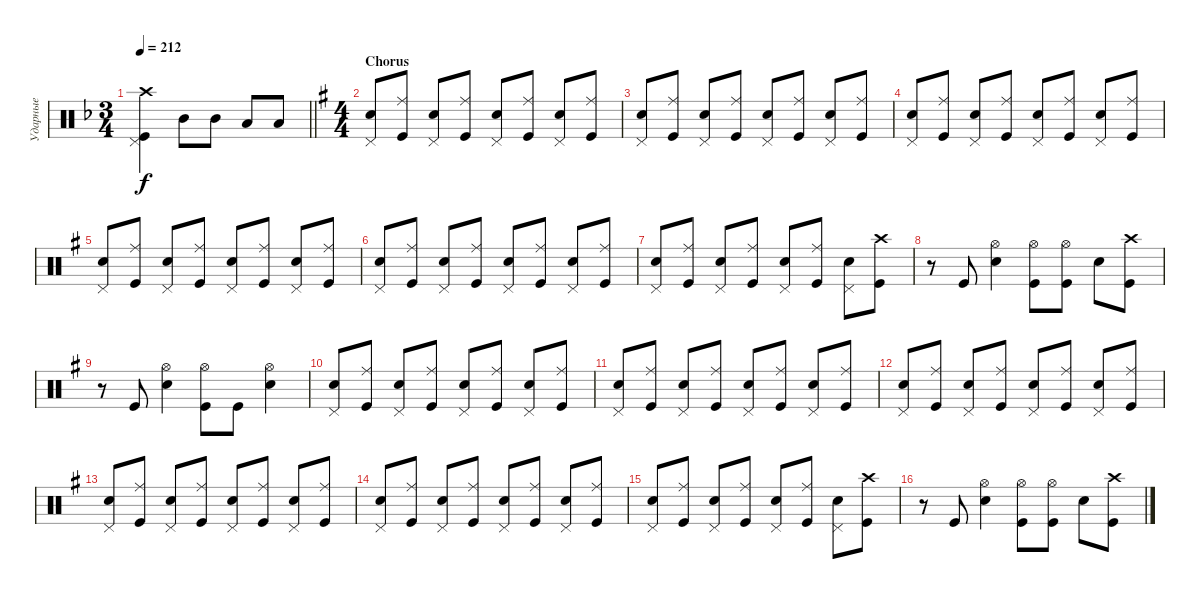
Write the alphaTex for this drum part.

\track ("Ударные" "Ударные") {instrument percussion}
\staff {score}
\articulation defaults
\ts (3 4)
\tempo 212
\clef neutral
\barLineRight lightlight
\ks dminor
("Kick (hit)" "Pedal Hi-Hat (hit)" "Crash high (hit)").4{dy f} "Mid Tom (hit)".8 "Mid Tom (hit)".8 "Low Tom (hit)".8 "Low Tom (hit)".8 |
\ts (4 4)
\section ("" "Chorus")
\ks eminor
("Snare (hit) 2" "Pedal Hi-Hat (hit)").8 ("Kick (hit)" "Ride (middle)").8 ("Snare (hit) 2" "Pedal Hi-Hat (hit)").8 ("Kick (hit)" "Ride (middle)").8 ("Snare (hit) 2" "Pedal Hi-Hat (hit)").8 ("Kick (hit)" "Ride (middle)").8 ("Snare (hit) 2" "Pedal Hi-Hat (hit)").8 ("Kick (hit)" "Ride (middle)").8 |
("Snare (hit) 2" "Pedal Hi-Hat (hit)").8 ("Kick (hit)" "Ride (middle)").8 ("Snare (hit) 2" "Pedal Hi-Hat (hit)").8 ("Kick (hit)" "Ride (middle)").8 ("Snare (hit) 2" "Pedal Hi-Hat (hit)").8 ("Kick (hit)" "Ride (middle)").8 ("Snare (hit) 2" "Pedal Hi-Hat (hit)").8 ("Kick (hit)" "Ride (middle)").8 |
("Snare (hit) 2" "Pedal Hi-Hat (hit)").8 ("Kick (hit)" "Ride (middle)").8 ("Snare (hit) 2" "Pedal Hi-Hat (hit)").8 ("Kick (hit)" "Ride (middle)").8 ("Snare (hit) 2" "Pedal Hi-Hat (hit)").8 ("Kick (hit)" "Ride (middle)").8 ("Snare (hit) 2" "Pedal Hi-Hat (hit)").8 ("Kick (hit)" "Ride (middle)").8 |
("Snare (hit) 2" "Pedal Hi-Hat (hit)").8 ("Kick (hit)" "Ride (middle)").8 ("Snare (hit) 2" "Pedal Hi-Hat (hit)").8 ("Kick (hit)" "Ride (middle)").8 ("Snare (hit) 2" "Pedal Hi-Hat (hit)").8 ("Kick (hit)" "Ride (middle)").8 ("Snare (hit) 2" "Pedal Hi-Hat (hit)").8 ("Kick (hit)" "Ride (middle)").8 |
("Snare (hit) 2" "Pedal Hi-Hat (hit)").8 ("Kick (hit)" "Ride (middle)").8 ("Snare (hit) 2" "Pedal Hi-Hat (hit)").8 ("Kick (hit)" "Ride (middle)").8 ("Snare (hit) 2" "Pedal Hi-Hat (hit)").8 ("Kick (hit)" "Ride (middle)").8 ("Snare (hit) 2" "Pedal Hi-Hat (hit)").8 ("Kick (hit)" "Ride (middle)").8 |
("Snare (hit) 2" "Pedal Hi-Hat (hit)").8 ("Kick (hit)" "Ride (middle)").8 ("Snare (hit) 2" "Pedal Hi-Hat (hit)").8 ("Kick (hit)" "Ride (middle)").8 ("Snare (hit) 2" "Pedal Hi-Hat (hit)").8 ("Kick (hit)" "Ride (middle)").8 ("Snare (hit) 2" "Pedal Hi-Hat (hit)").8 ("Kick (hit)" "Crash high (hit)").8 |
r.8 "Kick (hit)".8 ("Snare (hit) 2" "Hi-Hat (open)").4 ("Hi-Hat (open)" "Kick (hit)").8 ("Hi-Hat (open)" "Kick (hit)").8 "Snare (hit) 2".8 ("Kick (hit)" "Crash high (hit)").8 |
r.8 "Kick (hit)".8 ("Hi-Hat (open)" "Snare (hit) 2").4 ("Kick (hit)" "Hi-Hat (open)").8 "Kick (hit)".8 ("Snare (hit) 2" "Hi-Hat (open)").4 |
("Snare (hit) 2" "Pedal Hi-Hat (hit)").8 ("Kick (hit)" "Ride (middle)").8 ("Snare (hit) 2" "Pedal Hi-Hat (hit)").8 ("Kick (hit)" "Ride (middle)").8 ("Snare (hit) 2" "Pedal Hi-Hat (hit)").8 ("Kick (hit)" "Ride (middle)").8 ("Snare (hit) 2" "Pedal Hi-Hat (hit)").8 ("Kick (hit)" "Ride (middle)").8 |
("Snare (hit) 2" "Pedal Hi-Hat (hit)").8 ("Kick (hit)" "Ride (middle)").8 ("Snare (hit) 2" "Pedal Hi-Hat (hit)").8 ("Kick (hit)" "Ride (middle)").8 ("Snare (hit) 2" "Pedal Hi-Hat (hit)").8 ("Kick (hit)" "Ride (middle)").8 ("Snare (hit) 2" "Pedal Hi-Hat (hit)").8 ("Kick (hit)" "Ride (middle)").8 |
("Snare (hit) 2" "Pedal Hi-Hat (hit)").8 ("Kick (hit)" "Ride (middle)").8 ("Snare (hit) 2" "Pedal Hi-Hat (hit)").8 ("Kick (hit)" "Ride (middle)").8 ("Snare (hit) 2" "Pedal Hi-Hat (hit)").8 ("Kick (hit)" "Ride (middle)").8 ("Snare (hit) 2" "Pedal Hi-Hat (hit)").8 ("Kick (hit)" "Ride (middle)").8 |
("Snare (hit) 2" "Pedal Hi-Hat (hit)").8 ("Kick (hit)" "Ride (middle)").8 ("Snare (hit) 2" "Pedal Hi-Hat (hit)").8 ("Kick (hit)" "Ride (middle)").8 ("Snare (hit) 2" "Pedal Hi-Hat (hit)").8 ("Kick (hit)" "Ride (middle)").8 ("Snare (hit) 2" "Pedal Hi-Hat (hit)").8 ("Kick (hit)" "Ride (middle)").8 |
("Snare (hit) 2" "Pedal Hi-Hat (hit)").8 ("Kick (hit)" "Ride (middle)").8 ("Snare (hit) 2" "Pedal Hi-Hat (hit)").8 ("Kick (hit)" "Ride (middle)").8 ("Snare (hit) 2" "Pedal Hi-Hat (hit)").8 ("Kick (hit)" "Ride (middle)").8 ("Snare (hit) 2" "Pedal Hi-Hat (hit)").8 ("Kick (hit)" "Ride (middle)").8 |
("Snare (hit) 2" "Pedal Hi-Hat (hit)").8 ("Kick (hit)" "Ride (middle)").8 ("Snare (hit) 2" "Pedal Hi-Hat (hit)").8 ("Kick (hit)" "Ride (middle)").8 ("Snare (hit) 2" "Pedal Hi-Hat (hit)").8 ("Kick (hit)" "Ride (middle)").8 ("Snare (hit) 2" "Pedal Hi-Hat (hit)").8 ("Kick (hit)" "Crash high (hit)").8 |
r.8 "Kick (hit)".8 ("Snare (hit) 2" "Hi-Hat (open)").4 ("Hi-Hat (open)" "Kick (hit)").8 ("Hi-Hat (open)" "Kick (hit)").8 "Snare (hit) 2".8 ("Kick (hit)" "Crash high (hit)").8
